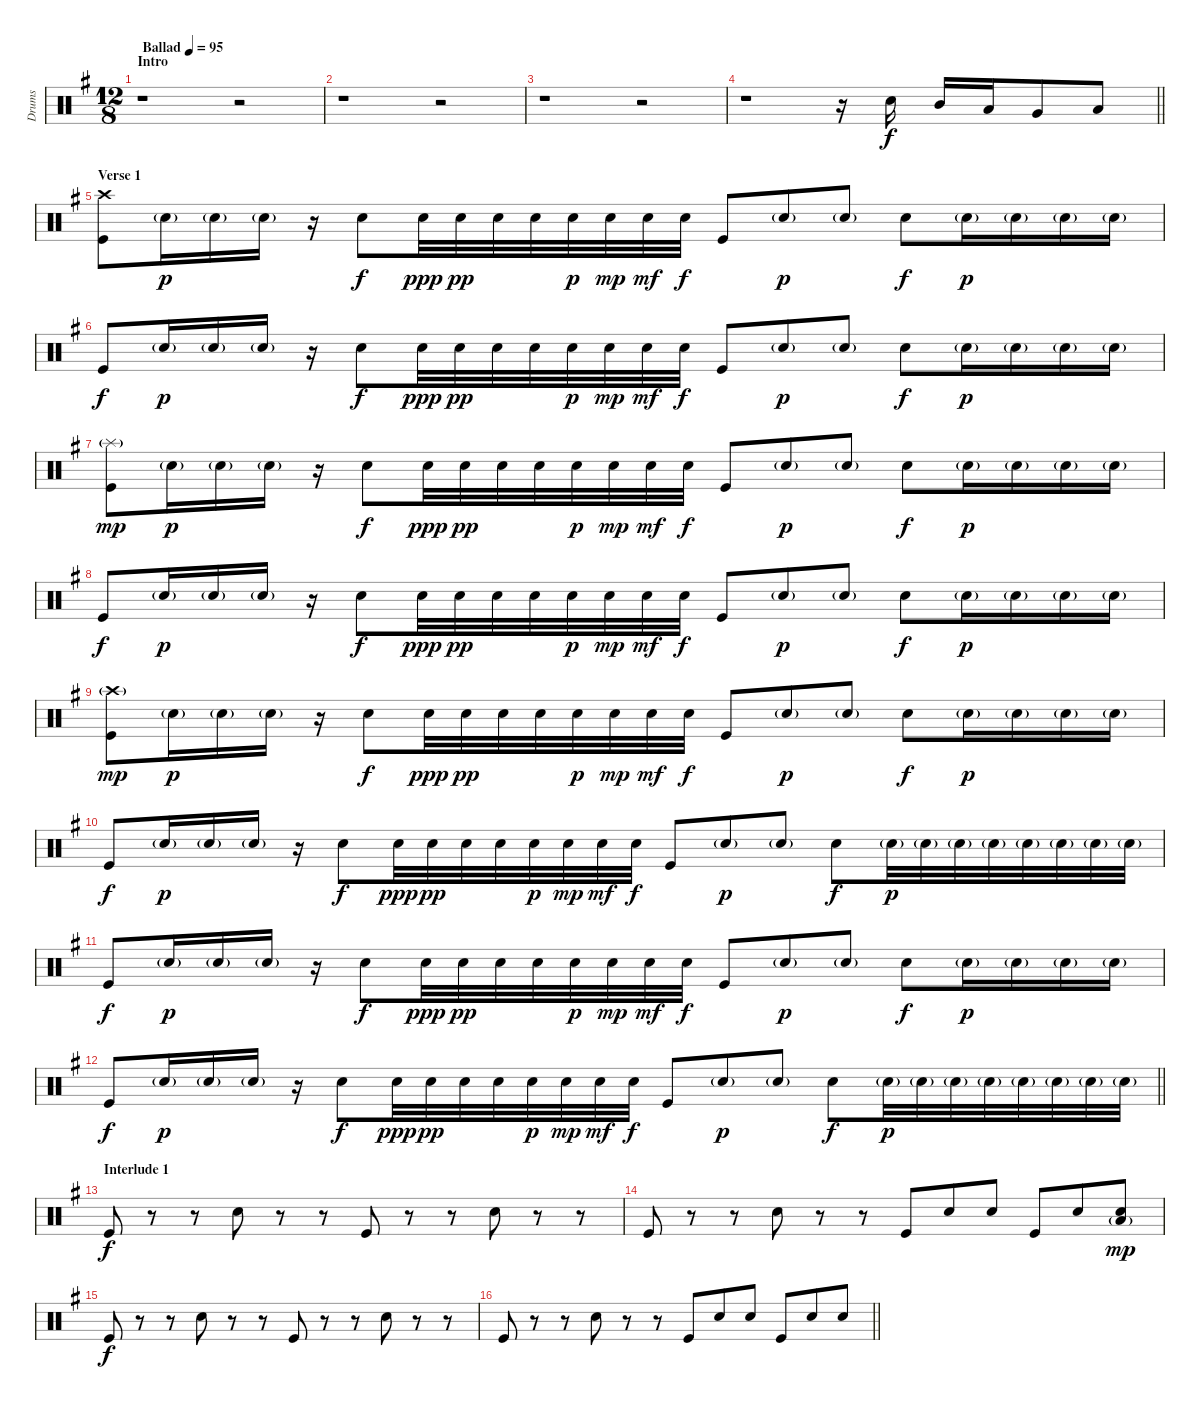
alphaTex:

\track ("Drums" "Drums") {instrument percussion}
\staff {score}
\articulation defaults
\ts (12 8)
\section ("" "Intro")
\tempo (95 "Ballad")
\clef neutral
\ks eminor
r.1{dy f} r.2 |
r.1 r.2 |
r.1 r.2 |
\barLineRight lightlight
r.1 r.16 "Snare (hit) 2".16 "Mid Tom (hit)".16 "Low Tom (hit)".16 "Very Low Tom (hit)".8 "Low Floor Tom (hit)".8 |
\section ("" "Verse 1")
("Crash high (hit)" "Kick (hit)").8 "Snare (hit) 2"{g}.16{dy p} "Snare (hit) 2"{g}.16 "Snare (hit) 2"{g}.16 r.16 "Snare (hit) 2".8{dy f} "Snare (hit) 2".32{dy ppp} "Snare (hit) 2".32{dy pp} "Snare (hit) 2".32 "Snare (hit) 2".32 "Snare (hit) 2".32{dy p} "Snare (hit) 2".32{dy mp} "Snare (hit) 2".32{dy mf} "Snare (hit) 2".32{dy f} "Kick (hit)".8 "Snare (hit) 2"{g}.8{dy p} "Snare (hit) 2"{g}.8 "Snare (hit) 2".8{dy f} "Snare (hit) 2"{g}.16{dy p} "Snare (hit) 2"{g}.16 "Snare (hit) 2"{g}.16 "Snare (hit) 2"{g}.16 |
"Kick (hit)".8{dy f} "Snare (hit) 2"{g}.16{dy p} "Snare (hit) 2"{g}.16 "Snare (hit) 2"{g}.16 r.16 "Snare (hit) 2".8{dy f} "Snare (hit) 2".32{dy ppp} "Snare (hit) 2".32{dy pp} "Snare (hit) 2".32 "Snare (hit) 2".32 "Snare (hit) 2".32{dy p} "Snare (hit) 2".32{dy mp} "Snare (hit) 2".32{dy mf} "Snare (hit) 2".32{dy f} "Kick (hit)".8 "Snare (hit) 2"{g}.8{dy p} "Snare (hit) 2"{g}.8 "Snare (hit) 2".8{dy f} "Snare (hit) 2"{g}.16{dy p} "Snare (hit) 2"{g}.16 "Snare (hit) 2"{g}.16 "Snare (hit) 2"{g}.16 |
("Splash (hit)"{g} "Kick (hit)").8{dy mp} "Snare (hit) 2"{g}.16{dy p} "Snare (hit) 2"{g}.16 "Snare (hit) 2"{g}.16 r.16 "Snare (hit) 2".8{dy f} "Snare (hit) 2".32{dy ppp} "Snare (hit) 2".32{dy pp} "Snare (hit) 2".32 "Snare (hit) 2".32 "Snare (hit) 2".32{dy p} "Snare (hit) 2".32{dy mp} "Snare (hit) 2".32{dy mf} "Snare (hit) 2".32{dy f} "Kick (hit)".8 "Snare (hit) 2"{g}.8{dy p} "Snare (hit) 2"{g}.8 "Snare (hit) 2".8{dy f} "Snare (hit) 2"{g}.16{dy p} "Snare (hit) 2"{g}.16 "Snare (hit) 2"{g}.16 "Snare (hit) 2"{g}.16 |
"Kick (hit)".8{dy f} "Snare (hit) 2"{g}.16{dy p} "Snare (hit) 2"{g}.16 "Snare (hit) 2"{g}.16 r.16 "Snare (hit) 2".8{dy f} "Snare (hit) 2".32{dy ppp} "Snare (hit) 2".32{dy pp} "Snare (hit) 2".32 "Snare (hit) 2".32 "Snare (hit) 2".32{dy p} "Snare (hit) 2".32{dy mp} "Snare (hit) 2".32{dy mf} "Snare (hit) 2".32{dy f} "Kick (hit)".8 "Snare (hit) 2"{g}.8{dy p} "Snare (hit) 2"{g}.8 "Snare (hit) 2".8{dy f} "Snare (hit) 2"{g}.16{dy p} "Snare (hit) 2"{g}.16 "Snare (hit) 2"{g}.16 "Snare (hit) 2"{g}.16 |
("Crash high (hit)"{g} "Kick (hit)").8{dy mp} "Snare (hit) 2"{g}.16{dy p} "Snare (hit) 2"{g}.16 "Snare (hit) 2"{g}.16 r.16 "Snare (hit) 2".8{dy f} "Snare (hit) 2".32{dy ppp} "Snare (hit) 2".32{dy pp} "Snare (hit) 2".32 "Snare (hit) 2".32 "Snare (hit) 2".32{dy p} "Snare (hit) 2".32{dy mp} "Snare (hit) 2".32{dy mf} "Snare (hit) 2".32{dy f} "Kick (hit)".8 "Snare (hit) 2"{g}.8{dy p} "Snare (hit) 2"{g}.8 "Snare (hit) 2".8{dy f} "Snare (hit) 2"{g}.16{dy p} "Snare (hit) 2"{g}.16 "Snare (hit) 2"{g}.16 "Snare (hit) 2"{g}.16 |
"Kick (hit)".8{dy f} "Snare (hit) 2"{g}.16{dy p} "Snare (hit) 2"{g}.16 "Snare (hit) 2"{g}.16 r.16 "Snare (hit) 2".8{dy f} "Snare (hit) 2".32{dy ppp} "Snare (hit) 2".32{dy pp} "Snare (hit) 2".32 "Snare (hit) 2".32 "Snare (hit) 2".32{dy p} "Snare (hit) 2".32{dy mp} "Snare (hit) 2".32{dy mf} "Snare (hit) 2".32{dy f} "Kick (hit)".8 "Snare (hit) 2"{g}.8{dy p} "Snare (hit) 2"{g}.8 "Snare (hit) 2".8{dy f} "Snare (hit) 2"{g}.32{dy p} "Snare (hit) 2"{g}.32 "Snare (hit) 2"{g}.32 "Snare (hit) 2"{g}.32 "Snare (hit) 2"{g}.32 "Snare (hit) 2"{g}.32 "Snare (hit) 2"{g}.32 "Snare (hit) 2"{g}.32 |
"Kick (hit)".8{dy f} "Snare (hit) 2"{g}.16{dy p} "Snare (hit) 2"{g}.16 "Snare (hit) 2"{g}.16 r.16 "Snare (hit) 2".8{dy f} "Snare (hit) 2".32{dy ppp} "Snare (hit) 2".32{dy pp} "Snare (hit) 2".32 "Snare (hit) 2".32 "Snare (hit) 2".32{dy p} "Snare (hit) 2".32{dy mp} "Snare (hit) 2".32{dy mf} "Snare (hit) 2".32{dy f} "Kick (hit)".8 "Snare (hit) 2"{g}.8{dy p} "Snare (hit) 2"{g}.8 "Snare (hit) 2".8{dy f} "Snare (hit) 2"{g}.16{dy p} "Snare (hit) 2"{g}.16 "Snare (hit) 2"{g}.16 "Snare (hit) 2"{g}.16 |
\barLineRight lightlight "Kick (hit)".8{dy f} "Snare (hit) 2"{g}.16{dy p} "Snare (hit) 2"{g}.16 "Snare (hit) 2"{g}.16
r.16 "Snare (hit) 2".8{dy f} "Snare (hit) 2".32{dy ppp} "Snare (hit) 2".32{dy pp} "Snare (hit) 2".32 "Snare (hit) 2".32 "Snare (hit) 2".32{dy p} "Snare (hit) 2".32{dy mp} "Snare (hit) 2".32{dy mf} "Snare (hit) 2".32{dy f} "Kick (hit)".8 "Snare (hit) 2"{g}.8{dy p} "Snare (hit) 2"{g}.8 "Snare (hit) 2".8{dy f} "Snare (hit) 2"{g}.32{dy p} "Snare (hit) 2"{g}.32 "Snare (hit) 2"{g}.32 "Snare (hit) 2"{g}.32 "Snare (hit) 2"{g}.32 "Snare (hit) 2"{g}.32 "Snare (hit) 2"{g}.32 "Snare (hit) 2"{g}.32 |
\section ("" "Interlude 1")
"Kick (hit)".8{dy f} r.8 r.8 "Snare (hit) 2".8 r.8 r.8 "Kick (hit)".8 r.8 r.8 "Snare (hit) 2".8 r.8 r.8 |
"Kick (hit)".8 r.8 r.8 "Snare (hit) 2".8 r.8 r.8 "Kick (hit)".8 "Snare (hit) 2".8 "Snare (hit) 2".8 "Kick (hit)".8 "Snare (hit) 2".8 ("Snare (hit) 2" "Low Tom (hit)"{g}).8{dy mp} |
"Kick (hit)".8{dy f} r.8 r.8 "Snare (hit) 2".8 r.8 r.8 "Kick (hit)".8 r.8 r.8 "Snare (hit) 2".8 r.8 r.8 |
\barLineRight lightlight "Kick (hit)".8
r.8 r.8 "Snare (hit) 2".8 r.8 r.8 "Kick (hit)".8 "Snare (hit) 2".8 "Snare (hit) 2".8 "Kick (hit)".8 "Snare (hit) 2".8 "Snare (hit) 2".8
